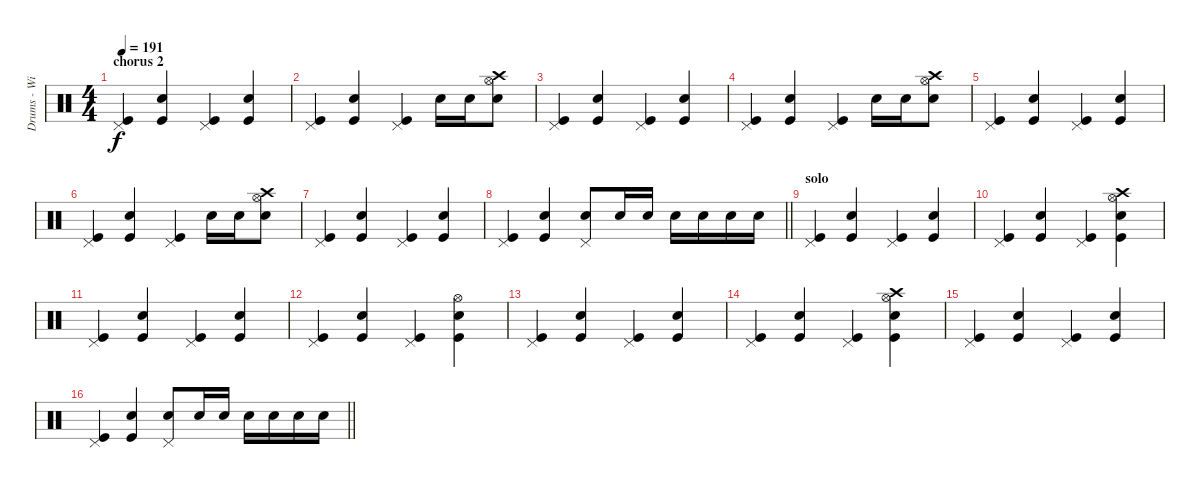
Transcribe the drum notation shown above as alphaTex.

\track ("Drums - Willie Buchan" "Drums - Wi") {instrument percussion}
\staff {score}
\articulation defaults
\ts (4 4)
\section ("" "chorus 2")
\tempo 191
\clef neutral
\ks c
("Kick (hit)" "Pedal Hi-Hat (hit)").4{dy f} ("Kick (hit)" "Snare (hit) 2").4 ("Kick (hit)" "Pedal Hi-Hat (hit)").4 ("Kick (hit)" "Snare (hit) 2").4 |
("Kick (hit)" "Pedal Hi-Hat (hit)").4 ("Kick (hit)" "Snare (hit) 2").4 ("Kick (hit)" "Pedal Hi-Hat (hit)").4 "Snare (hit) 2".16 "Snare (hit) 2".16 ("Snare (hit) 2" "Hi-Hat (open)" "Crash high (hit)").8 |
("Kick (hit)" "Pedal Hi-Hat (hit)").4 ("Kick (hit)" "Snare (hit) 2").4 ("Kick (hit)" "Pedal Hi-Hat (hit)").4 ("Kick (hit)" "Snare (hit) 2").4 |
("Kick (hit)" "Pedal Hi-Hat (hit)").4 ("Kick (hit)" "Snare (hit) 2").4 ("Kick (hit)" "Pedal Hi-Hat (hit)").4 "Snare (hit) 2".16 "Snare (hit) 2".16 ("Snare (hit) 2" "Hi-Hat (open)" "Crash high (hit)").8 |
("Kick (hit)" "Pedal Hi-Hat (hit)").4 ("Kick (hit)" "Snare (hit) 2").4 ("Kick (hit)" "Pedal Hi-Hat (hit)").4 ("Kick (hit)" "Snare (hit) 2").4 |
("Kick (hit)" "Pedal Hi-Hat (hit)").4 ("Kick (hit)" "Snare (hit) 2").4 ("Kick (hit)" "Pedal Hi-Hat (hit)").4 "Snare (hit) 2".16 "Snare (hit) 2".16 ("Snare (hit) 2" "Hi-Hat (open)" "Crash high (hit)").8 |
("Kick (hit)" "Pedal Hi-Hat (hit)").4 ("Kick (hit)" "Snare (hit) 2").4 ("Kick (hit)" "Pedal Hi-Hat (hit)").4 ("Kick (hit)" "Snare (hit) 2").4 |
\barLineRight lightlight
("Kick (hit)" "Pedal Hi-Hat (hit)").4 ("Kick (hit)" "Snare (hit) 2").4 ("Snare (hit) 2" "Pedal Hi-Hat (hit)").8 "Snare (hit) 2".16 "Snare (hit) 2".16 "Snare (hit) 2".16 "Snare (hit) 2".16 "Snare (hit) 2".16 "Snare (hit) 2".16 |
\section ("" "solo")
("Kick (hit)" "Pedal Hi-Hat (hit)").4 ("Kick (hit)" "Snare (hit) 2").4 ("Kick (hit)" "Pedal Hi-Hat (hit)").4 ("Kick (hit)" "Snare (hit) 2").4 |
("Kick (hit)" "Pedal Hi-Hat (hit)").4 ("Kick (hit)" "Snare (hit) 2").4 ("Kick (hit)" "Pedal Hi-Hat (hit)").4 ("Kick (hit)" "Snare (hit) 2" "Hi-Hat (open)" "Crash high (hit)").4 |
("Kick (hit)" "Pedal Hi-Hat (hit)").4 ("Kick (hit)" "Snare (hit) 2").4 ("Kick (hit)" "Pedal Hi-Hat (hit)").4 ("Kick (hit)" "Snare (hit) 2").4 |
("Kick (hit)" "Pedal Hi-Hat (hit)").4 ("Kick (hit)" "Snare (hit) 2").4 ("Kick (hit)" "Pedal Hi-Hat (hit)").4 ("Kick (hit)" "Snare (hit) 2" "Hi-Hat (open)").4 |
("Kick (hit)" "Pedal Hi-Hat (hit)").4 ("Kick (hit)" "Snare (hit) 2").4 ("Kick (hit)" "Pedal Hi-Hat (hit)").4 ("Kick (hit)" "Snare (hit) 2").4 |
("Kick (hit)" "Pedal Hi-Hat (hit)").4 ("Kick (hit)" "Snare (hit) 2").4 ("Kick (hit)" "Pedal Hi-Hat (hit)").4 ("Kick (hit)" "Snare (hit) 2" "Hi-Hat (open)" "Crash high (hit)").4 |
("Kick (hit)" "Pedal Hi-Hat (hit)").4 ("Kick (hit)" "Snare (hit) 2").4 ("Kick (hit)" "Pedal Hi-Hat (hit)").4 ("Kick (hit)" "Snare (hit) 2").4 |
\barLineRight lightlight
("Kick (hit)" "Pedal Hi-Hat (hit)").4 ("Kick (hit)" "Snare (hit) 2").4 ("Snare (hit) 2" "Pedal Hi-Hat (hit)").8 "Snare (hit) 2".16 "Snare (hit) 2".16 "Snare (hit) 2".16 "Snare (hit) 2".16 "Snare (hit) 2".16 "Snare (hit) 2".16
